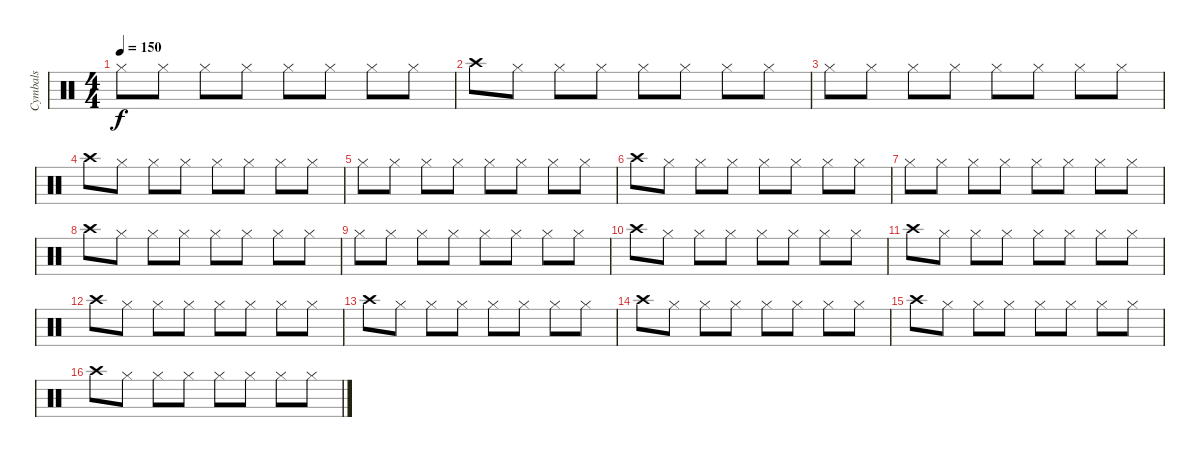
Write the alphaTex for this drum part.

\track ("Cymbals" "Cymbals") {instrument percussion}
\staff {score}
\articulation defaults
\ts (4 4)
\tempo 150
\clef neutral
\ks c "Hi-Hat (closed)".8{dy f} "Hi-Hat (closed)".8 "Hi-Hat (closed)".8 "Hi-Hat (closed)".8 "Hi-Hat (closed)".8 "Hi-Hat (closed)".8 "Hi-Hat (closed)".8 "Hi-Hat (closed)".8
|
"Crash high (hit)".8 "Hi-Hat (closed)".8 "Hi-Hat (closed)".8 "Hi-Hat (closed)".8 "Hi-Hat (closed)".8 "Hi-Hat (closed)".8 "Hi-Hat (closed)".8 "Hi-Hat (closed)".8 |
"Hi-Hat (closed)".8 "Hi-Hat (closed)".8 "Hi-Hat (closed)".8 "Hi-Hat (closed)".8 "Hi-Hat (closed)".8 "Hi-Hat (closed)".8 "Hi-Hat (closed)".8 "Hi-Hat (closed)".8 |
"Crash high (hit)".8 "Hi-Hat (closed)".8 "Hi-Hat (closed)".8 "Hi-Hat (closed)".8 "Hi-Hat (closed)".8 "Hi-Hat (closed)".8 "Hi-Hat (closed)".8 "Hi-Hat (closed)".8 |
"Hi-Hat (closed)".8 "Hi-Hat (closed)".8 "Hi-Hat (closed)".8 "Hi-Hat (closed)".8 "Hi-Hat (closed)".8 "Hi-Hat (closed)".8 "Hi-Hat (closed)".8 "Hi-Hat (closed)".8 |
"Crash high (hit)".8 "Hi-Hat (closed)".8 "Hi-Hat (closed)".8 "Hi-Hat (closed)".8 "Hi-Hat (closed)".8 "Hi-Hat (closed)".8 "Hi-Hat (closed)".8 "Hi-Hat (closed)".8 |
"Hi-Hat (closed)".8 "Hi-Hat (closed)".8 "Hi-Hat (closed)".8 "Hi-Hat (closed)".8 "Hi-Hat (closed)".8 "Hi-Hat (closed)".8 "Hi-Hat (closed)".8 "Hi-Hat (closed)".8 |
"Crash high (hit)".8 "Hi-Hat (closed)".8 "Hi-Hat (closed)".8 "Hi-Hat (closed)".8 "Hi-Hat (closed)".8 "Hi-Hat (closed)".8 "Hi-Hat (closed)".8 "Hi-Hat (closed)".8 |
"Hi-Hat (closed)".8 "Hi-Hat (closed)".8 "Hi-Hat (closed)".8 "Hi-Hat (closed)".8 "Hi-Hat (closed)".8 "Hi-Hat (closed)".8 "Hi-Hat (closed)".8 "Hi-Hat (closed)".8 |
"Crash high (hit)".8 "Hi-Hat (closed)".8 "Hi-Hat (closed)".8 "Hi-Hat (closed)".8 "Hi-Hat (closed)".8 "Hi-Hat (closed)".8 "Hi-Hat (closed)".8 "Hi-Hat (closed)".8 |
"Crash high (hit)".8 "Hi-Hat (closed)".8 "Hi-Hat (closed)".8 "Hi-Hat (closed)".8 "Hi-Hat (closed)".8 "Hi-Hat (closed)".8 "Hi-Hat (closed)".8 "Hi-Hat (closed)".8 |
"Crash high (hit)".8 "Hi-Hat (closed)".8 "Hi-Hat (closed)".8 "Hi-Hat (closed)".8 "Hi-Hat (closed)".8 "Hi-Hat (closed)".8 "Hi-Hat (closed)".8 "Hi-Hat (closed)".8 |
"Crash high (hit)".8 "Hi-Hat (closed)".8 "Hi-Hat (closed)".8 "Hi-Hat (closed)".8 "Hi-Hat (closed)".8 "Hi-Hat (closed)".8 "Hi-Hat (closed)".8 "Hi-Hat (closed)".8 |
"Crash high (hit)".8 "Hi-Hat (closed)".8 "Hi-Hat (closed)".8 "Hi-Hat (closed)".8 "Hi-Hat (closed)".8 "Hi-Hat (closed)".8 "Hi-Hat (closed)".8 "Hi-Hat (closed)".8 |
"Crash high (hit)".8 "Hi-Hat (closed)".8 "Hi-Hat (closed)".8 "Hi-Hat (closed)".8 "Hi-Hat (closed)".8 "Hi-Hat (closed)".8 "Hi-Hat (closed)".8 "Hi-Hat (closed)".8 |
"Crash high (hit)".8 "Hi-Hat (closed)".8 "Hi-Hat (closed)".8 "Hi-Hat (closed)".8 "Hi-Hat (closed)".8 "Hi-Hat (closed)".8 "Hi-Hat (closed)".8 "Hi-Hat (closed)".8
